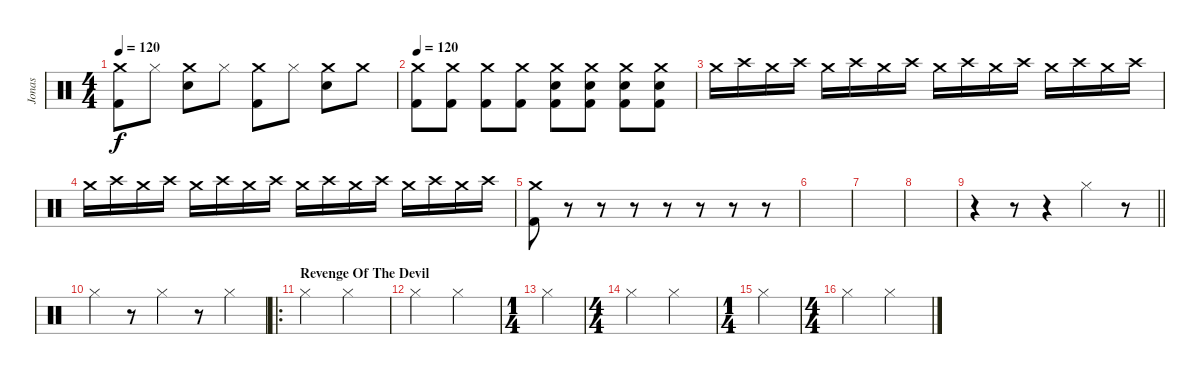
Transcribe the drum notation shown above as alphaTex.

\track ("Jonas" "Jonas") {instrument percussion}
\staff {score}
\articulation defaults
\ts (4 4)
\tempo 120
\clef neutral
\ks c
("Crash medium (hit)" "Kick (hit) 2").8{dy f} "Hi-Hat (closed)".8 ("Crash medium (hit)" "Snare (hit) 2").8 "Hi-Hat (closed)".8 ("Crash medium (hit)" "Kick (hit) 2").8 "Hi-Hat (closed)".8 ("Crash medium (hit)" "Snare (hit) 2").8 "Crash medium (hit)".8 |
\tempo 120
("Crash medium (hit)" "Kick (hit) 2").8 ("Crash medium (hit)" "Kick (hit) 2").8 ("Crash medium (hit)" "Kick (hit) 2").8 ("Crash medium (hit)" "Kick (hit) 2").8 ("Crash medium (hit)" "Snare (hit) 2" "Kick (hit) 2").8 ("Crash medium (hit)" "Snare (hit) 2" "Kick (hit) 2").8 ("Crash medium (hit)" "Snare (hit) 2" "Kick (hit) 2").8 ("Crash medium (hit)" "Snare (hit) 2" "Kick (hit) 2").8 |
"Crash medium (hit)".16 "Crash high (hit)".16 "Crash medium (hit)".16 "Crash high (hit)".16 "Crash medium (hit)".16 "Crash high (hit)".16 "Crash medium (hit)".16 "Crash high (hit)".16 "Crash medium (hit)".16 "Crash high (hit)".16 "Crash medium (hit)".16 "Crash high (hit)".16 "Crash medium (hit)".16 "Crash high (hit)".16 "Crash medium (hit)".16 "Crash high (hit)".16 |
"Crash medium (hit)".16 "Crash high (hit)".16 "Crash medium (hit)".16 "Crash high (hit)".16 "Crash medium (hit)".16 "Crash high (hit)".16 "Crash medium (hit)".16 "Crash high (hit)".16 "Crash medium (hit)".16 "Crash high (hit)".16 "Crash medium (hit)".16 "Crash high (hit)".16 "Crash medium (hit)".16 "Crash high (hit)".16 "Crash medium (hit)".16 "Crash high (hit)".16 |
("Crash medium (hit)" "Kick (hit) 2").8 r.8 r.8 r.8 r.8 r.8 r.8 r.8 |
|
|
|
\barLineRight lightlight
r.4 r.8 r.4 "Hi-Hat (closed)".4 r.8 |
"Hi-Hat (closed)".4 r.8 "Hi-Hat (closed)".4 r.8 "Hi-Hat (closed)".4 |
\ro
\section ("" "Revenge Of The Devil")
"Hi-Hat (closed)".2{volume 7} "Hi-Hat (closed)".2 |
"Hi-Hat (closed)".2 "Hi-Hat (closed)".2 |
\ts (1 4)
"Hi-Hat (closed)".4 |
\ts (4 4)
"Hi-Hat (closed)".2 "Hi-Hat (closed)".2 |
\ts (1 4)
"Hi-Hat (closed)".4 |
\ts (4 4)
"Hi-Hat (closed)".2 "Hi-Hat (closed)".2
